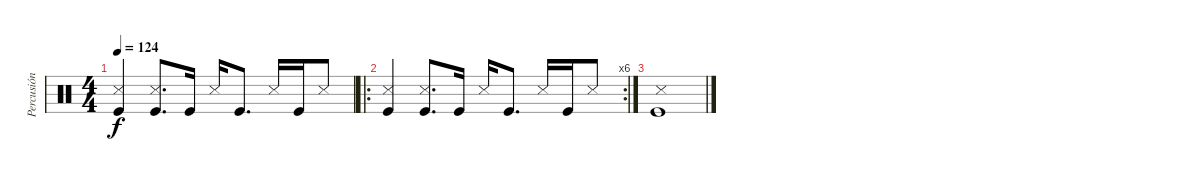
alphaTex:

\track ("Percusión" "Percusión") {instrument percussion bank 2}
\staff {score}
\articulation defaults
\ts (4 4)
\tempo 124
\clef neutral
\ks c
("Snare (side stick) 3" "Kick (hit)").4{dy f} ("Snare (side stick) 3" "Kick (hit)").8{d} "Kick (hit)".16 "Snare (side stick) 3".16 "Kick (hit)".8{d} "Snare (side stick) 3".16 "Kick (hit)".16 "Snare (side stick) 3".8 |
\ro
\rc 6
("Snare (side stick) 3" "Kick (hit)").4 ("Snare (side stick) 3" "Kick (hit)").8{d} "Kick (hit)".16 "Snare (side stick) 3".16 "Kick (hit)".8{d} "Snare (side stick) 3".16 "Kick (hit)".16 "Snare (side stick) 3".8 |
("Snare (side stick) 3" "Kick (hit)").1
